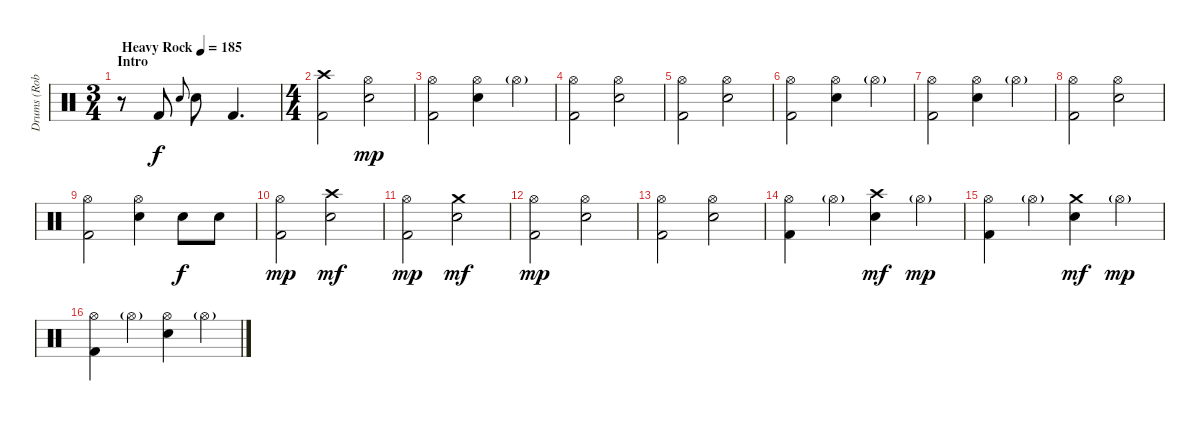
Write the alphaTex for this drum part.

\track ("Drums (Robert Ortiz)" "Drums (Rob") {instrument percussion}
\staff {score}
\articulation defaults
\ts (3 4)
\section ("" "Intro")
\tempo (185 "Heavy Rock")
\clef neutral
\ks c
r.8{dy f} "Kick (hit) 2".8 "Electric Snare (hit)".8{gr onbeat} "Electric Snare (hit)".8 "Kick (hit) 2".4{d} |
\ts (4 4)
("Crash high (hit)" "Kick (hit) 2").2 ("Hi-Hat (open)" "Electric Snare (hit)").2{dy mp} |
("Hi-Hat (open)" "Kick (hit) 2").2 ("Hi-Hat (open)" "Electric Snare (hit)").4 "Hi-Hat (open)"{g}.4 |
("Hi-Hat (open)" "Kick (hit) 2").2 ("Hi-Hat (open)" "Electric Snare (hit)").2 |
("Hi-Hat (open)" "Kick (hit) 2").2 ("Hi-Hat (open)" "Electric Snare (hit)").2 |
("Hi-Hat (open)" "Kick (hit) 2").2 ("Hi-Hat (open)" "Electric Snare (hit)").4 "Hi-Hat (open)"{g}.4 |
("Hi-Hat (open)" "Kick (hit) 2").2 ("Hi-Hat (open)" "Electric Snare (hit)").4 "Hi-Hat (open)"{g}.4 |
("Hi-Hat (open)" "Kick (hit) 2").2 ("Hi-Hat (open)" "Electric Snare (hit)").2 |
("Hi-Hat (open)" "Kick (hit) 2").2 ("Hi-Hat (open)" "Electric Snare (hit)").4 "Electric Snare (hit)".8{dy f} "Electric Snare (hit)".8 |
("Hi-Hat (open)" "Kick (hit) 2").2{dy mp} ("Crash high (hit)" "Electric Snare (hit)").2{dy mf} |
("Hi-Hat (open)" "Kick (hit) 2").2{dy mp} ("Crash medium (hit)" "Electric Snare (hit)").2{dy mf} |
("Hi-Hat (open)" "Kick (hit) 2").2{dy mp} ("Hi-Hat (open)" "Electric Snare (hit)").2 |
("Hi-Hat (open)" "Kick (hit) 2").2 ("Hi-Hat (open)" "Electric Snare (hit)").2 |
("Hi-Hat (open)" "Kick (hit) 2").4 "Hi-Hat (open)"{g}.4 ("Crash high (hit)" "Electric Snare (hit)").4{dy mf} "Hi-Hat (open)"{g}.4{dy mp} |
("Hi-Hat (open)" "Kick (hit) 2").4 "Hi-Hat (open)"{g}.4 ("Crash medium (hit)" "Electric Snare (hit)").4{dy mf} "Hi-Hat (open)"{g}.4{dy mp} |
("Hi-Hat (open)" "Kick (hit) 2").4 "Hi-Hat (open)"{g}.4 ("Hi-Hat (open)" "Electric Snare (hit)").4 "Hi-Hat (open)"{g}.4
